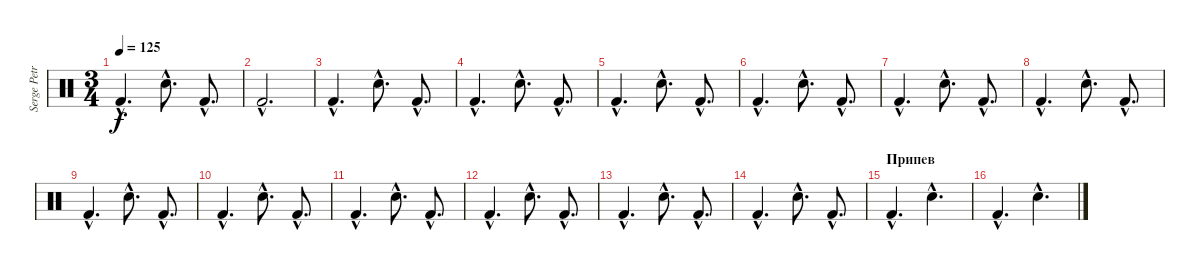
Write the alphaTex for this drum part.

\track ("Serge Petrone" "Serge Petr") {instrument percussion}
\staff {score}
\articulation defaults
\ts (3 4)
\tempo 125
\clef neutral
\ks c "Kick (hit) 2"{hac}.4{d dy f} "Snare (hit) 2"{hac}.8{d} "Kick (hit) 2"{hac}.8{d}
|
"Kick (hit) 2"{hac}.2{d} |
"Kick (hit) 2"{hac}.4{d} "Snare (hit) 2"{hac}.8{d} "Kick (hit) 2"{hac}.8{d} |
"Kick (hit) 2"{hac}.4{d} "Snare (hit) 2"{hac}.8{d} "Kick (hit) 2"{hac}.8{d} |
"Kick (hit) 2"{hac}.4{d} "Snare (hit) 2"{hac}.8{d} "Kick (hit) 2"{hac}.8{d} |
"Kick (hit) 2"{hac}.4{d} "Snare (hit) 2"{hac}.8{d} "Kick (hit) 2"{hac}.8{d} |
"Kick (hit) 2"{hac}.4{d} "Snare (hit) 2"{hac}.8{d} "Kick (hit) 2"{hac}.8{d} |
"Kick (hit) 2"{hac}.4{d} "Snare (hit) 2"{hac}.8{d} "Kick (hit) 2"{hac}.8{d} |
"Kick (hit) 2"{hac}.4{d} "Snare (hit) 2"{hac}.8{d} "Kick (hit) 2"{hac}.8{d} |
"Kick (hit) 2"{hac}.4{d} "Snare (hit) 2"{hac}.8{d} "Kick (hit) 2"{hac}.8{d} |
"Kick (hit) 2"{hac}.4{d} "Snare (hit) 2"{hac}.8{d} "Kick (hit) 2"{hac}.8{d} |
"Kick (hit) 2"{hac}.4{d} "Snare (hit) 2"{hac}.8{d} "Kick (hit) 2"{hac}.8{d} |
"Kick (hit) 2"{hac}.4{d} "Snare (hit) 2"{hac}.8{d} "Kick (hit) 2"{hac}.8{d} |
"Kick (hit) 2"{hac}.4{d} "Snare (hit) 2"{hac}.8{d} "Kick (hit) 2"{hac}.8{d} |
\section ("" "Припев")
"Kick (hit) 2"{hac}.4{d} "Snare (hit) 2"{hac}.4{d} |
"Kick (hit) 2"{hac}.4{d} "Snare (hit) 2"{hac}.4{d}
